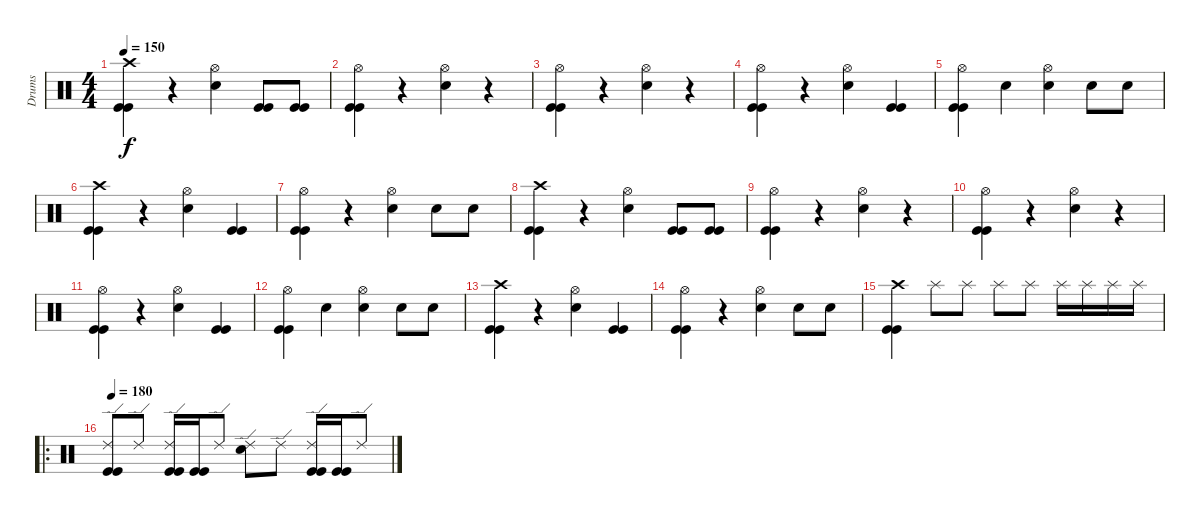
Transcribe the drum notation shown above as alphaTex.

\track ("Drums" "Drums") {instrument percussion}
\staff {score}
\articulation defaults
\ts (4 4)
\tempo 150
\clef neutral
\ks c
("Crash high (hit)" "Kick (hit)" "Kick (hit)").4{dy f} r.4 ("Hi-Hat (open)" "Snare (hit) 2").4 ("Kick (hit)" "Kick (hit)").8 ("Kick (hit)" "Kick (hit)").8 |
("Hi-Hat (open)" "Kick (hit)" "Kick (hit)").4 r.4 ("Hi-Hat (open)" "Snare (hit) 2").4 r.4 |
("Hi-Hat (open)" "Kick (hit)" "Kick (hit)").4 r.4 ("Hi-Hat (open)" "Snare (hit) 2").4 r.4 |
("Hi-Hat (open)" "Kick (hit)" "Kick (hit)").4 r.4 ("Hi-Hat (open)" "Snare (hit) 2").4 ("Kick (hit)" "Kick (hit)").4 |
("Hi-Hat (open)" "Kick (hit)" "Kick (hit)").4 "Snare (hit) 2".4 ("Hi-Hat (open)" "Snare (hit) 2").4 "Snare (hit) 2".8 "Snare (hit) 2".8 |
("Crash high (hit)" "Kick (hit)" "Kick (hit)").4 r.4 ("Hi-Hat (open)" "Snare (hit) 2").4 ("Kick (hit)" "Kick (hit)").4 |
("Hi-Hat (open)" "Kick (hit)" "Kick (hit)").4 r.4 ("Hi-Hat (open)" "Snare (hit) 2").4 "Snare (hit) 2".8 "Snare (hit) 2".8 |
("Crash high (hit)" "Kick (hit)" "Kick (hit)").4 r.4 ("Hi-Hat (open)" "Snare (hit) 2").4 ("Kick (hit)" "Kick (hit)").8 ("Kick (hit)" "Kick (hit)").8 |
("Hi-Hat (open)" "Kick (hit)" "Kick (hit)").4 r.4 ("Hi-Hat (open)" "Snare (hit) 2").4 r.4 |
("Hi-Hat (open)" "Kick (hit)" "Kick (hit)").4 r.4 ("Hi-Hat (open)" "Snare (hit) 2").4 r.4 |
("Hi-Hat (open)" "Kick (hit)" "Kick (hit)").4 r.4 ("Hi-Hat (open)" "Snare (hit) 2").4 ("Kick (hit)" "Kick (hit)").4 |
("Hi-Hat (open)" "Kick (hit)" "Kick (hit)").4 "Snare (hit) 2".4 ("Hi-Hat (open)" "Snare (hit) 2").4 "Snare (hit) 2".8 "Snare (hit) 2".8 |
("Crash high (hit)" "Kick (hit)" "Kick (hit)").4 r.4 ("Hi-Hat (open)" "Snare (hit) 2").4 ("Kick (hit)" "Kick (hit)").4 |
("Hi-Hat (open)" "Kick (hit)" "Kick (hit)").4 r.4 ("Hi-Hat (open)" "Snare (hit) 2").4 "Snare (hit) 2".8 "Snare (hit) 2".8 |
("Crash high (hit)" "Kick (hit)" "Kick (hit)").4 "Splash (hit)".8 "Splash (hit)".8 "Splash (hit)".8 "Splash (hit)".8 "Splash (hit)".16 "Splash (hit)".16 "Splash (hit)".16 "Splash (hit)".16 |
\ro
\tempo 180
("Ride (edge) 2" "Kick (hit)" "Kick (hit)").8 "Ride (edge) 2".8 ("Ride (edge) 2" "Kick (hit)" "Kick (hit)").16 ("Kick (hit)" "Kick (hit)").16 "Ride (edge) 2".8 ("Ride (edge) 2" "Snare (hit) 2").8 "Ride (edge) 2".8 ("Ride (edge) 2" "Kick (hit)" "Kick (hit)").16 ("Kick (hit)" "Kick (hit)").16 "Ride (edge) 2".8
